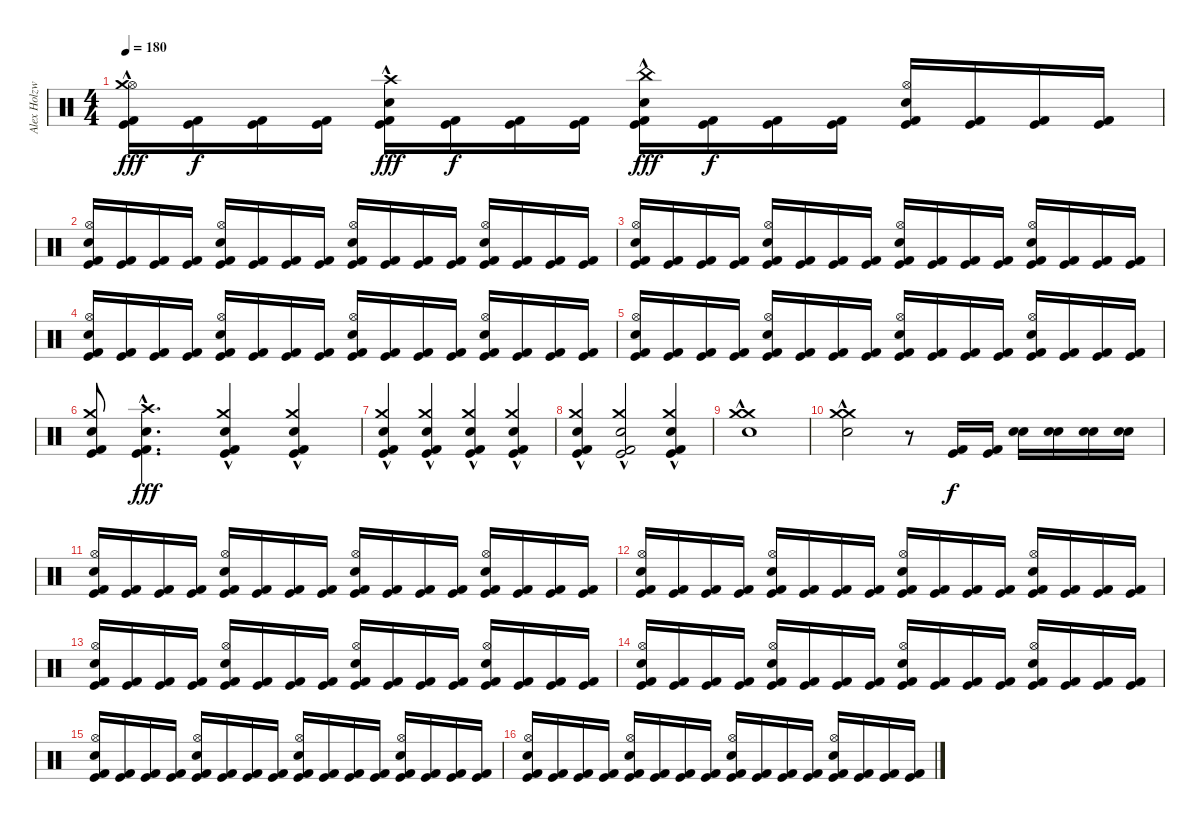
\track ("Alex Holzwarth" "Alex Holzw") {instrument percussion}
\staff {score}
\articulation defaults
\ts (4 4)
\tempo 180
\clef neutral
\ks c
("Kick (hit) 2" "Kick (hit)" "Hi-Hat (open)" "Crash medium (hit)"{hac}).16{dy fff} ("Kick (hit) 2" "Kick (hit)").16{dy f} ("Kick (hit) 2" "Kick (hit)").16 ("Kick (hit) 2" "Kick (hit)").16 ("Kick (hit) 2" "Kick (hit)" "Snare (hit) 2" "Crash high (hit)"{hac}).16{dy fff} ("Kick (hit) 2" "Kick (hit)").16{dy f} ("Kick (hit) 2" "Kick (hit)").16 ("Kick (hit) 2" "Kick (hit)").16 ("Kick (hit) 2" "Kick (hit)" "Snare (hit) 2" "China (hit)"{hac}).16{dy fff} ("Kick (hit) 2" "Kick (hit)").16{dy f} ("Kick (hit) 2" "Kick (hit)").16 ("Kick (hit) 2" "Kick (hit)").16 ("Kick (hit) 2" "Kick (hit)" "Hi-Hat (open)" "Snare (hit) 2").16 ("Kick (hit) 2" "Kick (hit)").16 ("Kick (hit) 2" "Kick (hit)").16 ("Kick (hit) 2" "Kick (hit)").16 |
("Kick (hit) 2" "Kick (hit)" "Snare (hit) 2" "Hi-Hat (open)").16 ("Kick (hit) 2" "Kick (hit)").16 ("Kick (hit) 2" "Kick (hit)").16 ("Kick (hit) 2" "Kick (hit)").16 ("Kick (hit) 2" "Kick (hit)" "Hi-Hat (open)" "Snare (hit) 2").16 ("Kick (hit) 2" "Kick (hit)").16 ("Kick (hit) 2" "Kick (hit)").16 ("Kick (hit) 2" "Kick (hit)").16 ("Kick (hit) 2" "Kick (hit)" "Hi-Hat (open)" "Snare (hit) 2").16 ("Kick (hit) 2" "Kick (hit)").16 ("Kick (hit) 2" "Kick (hit)").16 ("Kick (hit) 2" "Kick (hit)").16 ("Kick (hit) 2" "Kick (hit)" "Hi-Hat (open)" "Snare (hit) 2").16 ("Kick (hit) 2" "Kick (hit)").16 ("Kick (hit) 2" "Kick (hit)").16 ("Kick (hit) 2" "Kick (hit)").16 |
("Kick (hit) 2" "Kick (hit)" "Snare (hit) 2" "Hi-Hat (open)").16 ("Kick (hit) 2" "Kick (hit)").16 ("Kick (hit) 2" "Kick (hit)").16 ("Kick (hit) 2" "Kick (hit)").16 ("Kick (hit) 2" "Kick (hit)" "Hi-Hat (open)" "Snare (hit) 2").16 ("Kick (hit) 2" "Kick (hit)").16 ("Kick (hit) 2" "Kick (hit)").16 ("Kick (hit) 2" "Kick (hit)").16 ("Kick (hit) 2" "Kick (hit)" "Hi-Hat (open)" "Snare (hit) 2").16 ("Kick (hit) 2" "Kick (hit)").16 ("Kick (hit) 2" "Kick (hit)").16 ("Kick (hit) 2" "Kick (hit)").16 ("Kick (hit) 2" "Kick (hit)" "Hi-Hat (open)" "Snare (hit) 2").16 ("Kick (hit) 2" "Kick (hit)").16 ("Kick (hit) 2" "Kick (hit)").16 ("Kick (hit) 2" "Kick (hit)").16 |
("Kick (hit) 2" "Kick (hit)" "Snare (hit) 2" "Hi-Hat (open)").16 ("Kick (hit) 2" "Kick (hit)").16 ("Kick (hit) 2" "Kick (hit)").16 ("Kick (hit) 2" "Kick (hit)").16 ("Kick (hit) 2" "Kick (hit)" "Hi-Hat (open)" "Snare (hit) 2").16 ("Kick (hit) 2" "Kick (hit)").16 ("Kick (hit) 2" "Kick (hit)").16 ("Kick (hit) 2" "Kick (hit)").16 ("Kick (hit) 2" "Kick (hit)" "Hi-Hat (open)" "Snare (hit) 2").16 ("Kick (hit) 2" "Kick (hit)").16 ("Kick (hit) 2" "Kick (hit)").16 ("Kick (hit) 2" "Kick (hit)").16 ("Kick (hit) 2" "Kick (hit)" "Hi-Hat (open)" "Snare (hit) 2").16 ("Kick (hit) 2" "Kick (hit)").16 ("Kick (hit) 2" "Kick (hit)").16 ("Kick (hit) 2" "Kick (hit)").16 |
("Kick (hit) 2" "Kick (hit)" "Snare (hit) 2" "Hi-Hat (open)").16 ("Kick (hit) 2" "Kick (hit)").16 ("Kick (hit) 2" "Kick (hit)").16 ("Kick (hit) 2" "Kick (hit)").16 ("Kick (hit) 2" "Kick (hit)" "Hi-Hat (open)" "Snare (hit) 2").16 ("Kick (hit) 2" "Kick (hit)").16 ("Kick (hit) 2" "Kick (hit)").16 ("Kick (hit) 2" "Kick (hit)").16 ("Kick (hit) 2" "Kick (hit)" "Hi-Hat (open)" "Snare (hit) 2").16 ("Kick (hit) 2" "Kick (hit)").16 ("Kick (hit) 2" "Kick (hit)").16 ("Kick (hit) 2" "Kick (hit)").16 ("Kick (hit) 2" "Kick (hit)" "Hi-Hat (open)" "Snare (hit) 2").16 ("Kick (hit) 2" "Kick (hit)").16 ("Kick (hit) 2" "Kick (hit)").16 ("Kick (hit) 2" "Kick (hit)").16 |
("Kick (hit) 2" "Kick (hit)" "Snare (hit) 2" "Crash medium (hit)").8 ("Kick (hit)" "Kick (hit) 2" "Snare (hit) 2" "Crash high (hit)"{hac}).4{d dy fff} ("Kick (hit) 2" "Kick (hit)" "Snare (hit) 2" "Crash medium (hit)"{hac}).4 ("Kick (hit) 2" "Kick (hit)" "Snare (hit) 2" "Crash medium (hit)"{hac}).4 |
("Kick (hit) 2" "Kick (hit)" "Snare (hit) 2" "Crash medium (hit)"{hac}).4 ("Kick (hit) 2" "Kick (hit)" "Snare (hit) 2" "Crash medium (hit)"{hac}).4 ("Kick (hit) 2" "Kick (hit)" "Snare (hit) 2" "Crash medium (hit)"{hac}).4 ("Kick (hit) 2" "Kick (hit)" "Snare (hit) 2" "Crash medium (hit)"{hac}).4 |
("Kick (hit) 2" "Kick (hit)" "Snare (hit) 2" "Crash medium (hit)"{hac}).4 ("Kick (hit) 2" "Kick (hit)" "Snare (hit) 2" "Crash medium (hit)"{hac}).2 ("Kick (hit) 2" "Kick (hit)" "Snare (hit) 2" "Crash medium (hit)"{hac}).4 |
("Crash medium (hit)"{hac} "Snare (hit) 2" "Crash medium (hit)"{hac}).1{volume 16} |
("Snare (hit) 2" "Crash medium (hit)"{hac} "Crash medium (hit)"{hac}).2 r.8 ("Kick (hit) 2" "Kick (hit)").16{dy f} ("Kick (hit) 2" "Kick (hit)").16 ("Snare (hit) 2" "Electric Snare (hit)").16 ("Snare (hit) 2" "Electric Snare (hit)").16 ("Snare (hit) 2" "Electric Snare (hit)").16 ("Snare (hit) 2" "Electric Snare (hit)").16 |
("Kick (hit) 2" "Kick (hit)" "Snare (hit) 2" "Hi-Hat (open)").16 ("Kick (hit) 2" "Kick (hit)").16 ("Kick (hit) 2" "Kick (hit)").16 ("Kick (hit) 2" "Kick (hit)").16 ("Kick (hit) 2" "Kick (hit)" "Hi-Hat (open)" "Snare (hit) 2").16 ("Kick (hit) 2" "Kick (hit)").16 ("Kick (hit) 2" "Kick (hit)").16 ("Kick (hit) 2" "Kick (hit)").16 ("Kick (hit) 2" "Kick (hit)" "Hi-Hat (open)" "Snare (hit) 2").16 ("Kick (hit) 2" "Kick (hit)").16 ("Kick (hit) 2" "Kick (hit)").16 ("Kick (hit) 2" "Kick (hit)").16 ("Kick (hit) 2" "Kick (hit)" "Hi-Hat (open)" "Snare (hit) 2").16 ("Kick (hit) 2" "Kick (hit)").16 ("Kick (hit) 2" "Kick (hit)").16 ("Kick (hit) 2" "Kick (hit)").16 |
("Kick (hit) 2" "Kick (hit)" "Snare (hit) 2" "Hi-Hat (open)").16 ("Kick (hit) 2" "Kick (hit)").16 ("Kick (hit) 2" "Kick (hit)").16 ("Kick (hit) 2" "Kick (hit)").16 ("Kick (hit) 2" "Kick (hit)" "Hi-Hat (open)" "Snare (hit) 2").16 ("Kick (hit) 2" "Kick (hit)").16 ("Kick (hit) 2" "Kick (hit)").16 ("Kick (hit) 2" "Kick (hit)").16 ("Kick (hit) 2" "Kick (hit)" "Hi-Hat (open)" "Snare (hit) 2").16 ("Kick (hit) 2" "Kick (hit)").16 ("Kick (hit) 2" "Kick (hit)").16 ("Kick (hit) 2" "Kick (hit)").16 ("Kick (hit) 2" "Kick (hit)" "Hi-Hat (open)" "Snare (hit) 2").16 ("Kick (hit) 2" "Kick (hit)").16 ("Kick (hit) 2" "Kick (hit)").16 ("Kick (hit) 2" "Kick (hit)").16 |
("Kick (hit) 2" "Kick (hit)" "Snare (hit) 2" "Hi-Hat (open)").16 ("Kick (hit) 2" "Kick (hit)").16 ("Kick (hit) 2" "Kick (hit)").16 ("Kick (hit) 2" "Kick (hit)").16 ("Kick (hit) 2" "Kick (hit)" "Hi-Hat (open)" "Snare (hit) 2").16 ("Kick (hit) 2" "Kick (hit)").16 ("Kick (hit) 2" "Kick (hit)").16 ("Kick (hit) 2" "Kick (hit)").16 ("Kick (hit) 2" "Kick (hit)" "Hi-Hat (open)" "Snare (hit) 2").16 ("Kick (hit) 2" "Kick (hit)").16 ("Kick (hit) 2" "Kick (hit)").16 ("Kick (hit) 2" "Kick (hit)").16 ("Kick (hit) 2" "Kick (hit)" "Hi-Hat (open)" "Snare (hit) 2").16 ("Kick (hit) 2" "Kick (hit)").16 ("Kick (hit) 2" "Kick (hit)").16 ("Kick (hit) 2" "Kick (hit)").16 |
("Kick (hit) 2" "Kick (hit)" "Snare (hit) 2" "Hi-Hat (open)").16 ("Kick (hit) 2" "Kick (hit)").16 ("Kick (hit) 2" "Kick (hit)").16 ("Kick (hit) 2" "Kick (hit)").16 ("Kick (hit) 2" "Kick (hit)" "Hi-Hat (open)" "Snare (hit) 2").16 ("Kick (hit) 2" "Kick (hit)").16 ("Kick (hit) 2" "Kick (hit)").16 ("Kick (hit) 2" "Kick (hit)").16 ("Kick (hit) 2" "Kick (hit)" "Hi-Hat (open)" "Snare (hit) 2").16 ("Kick (hit) 2" "Kick (hit)").16 ("Kick (hit) 2" "Kick (hit)").16 ("Kick (hit) 2" "Kick (hit)").16 ("Kick (hit) 2" "Kick (hit)" "Hi-Hat (open)" "Snare (hit) 2").16 ("Kick (hit) 2" "Kick (hit)").16 ("Kick (hit) 2" "Kick (hit)").16 ("Kick (hit) 2" "Kick (hit)").16 |
("Kick (hit) 2" "Kick (hit)" "Snare (hit) 2" "Hi-Hat (open)").16 ("Kick (hit) 2" "Kick (hit)").16 ("Kick (hit) 2" "Kick (hit)").16 ("Kick (hit) 2" "Kick (hit)").16 ("Kick (hit) 2" "Kick (hit)" "Hi-Hat (open)" "Snare (hit) 2").16 ("Kick (hit) 2" "Kick (hit)").16 ("Kick (hit) 2" "Kick (hit)").16 ("Kick (hit) 2" "Kick (hit)").16 ("Kick (hit) 2" "Kick (hit)" "Hi-Hat (open)" "Snare (hit) 2").16 ("Kick (hit) 2" "Kick (hit)").16 ("Kick (hit) 2" "Kick (hit)").16 ("Kick (hit) 2" "Kick (hit)").16 ("Kick (hit) 2" "Kick (hit)" "Hi-Hat (open)" "Snare (hit) 2").16 ("Kick (hit) 2" "Kick (hit)").16 ("Kick (hit) 2" "Kick (hit)").16 ("Kick (hit) 2" "Kick (hit)").16 |
("Kick (hit) 2" "Kick (hit)" "Snare (hit) 2" "Hi-Hat (open)").16 ("Kick (hit) 2" "Kick (hit)").16 ("Kick (hit) 2" "Kick (hit)").16 ("Kick (hit) 2" "Kick (hit)").16 ("Kick (hit) 2" "Kick (hit)" "Hi-Hat (open)" "Snare (hit) 2").16 ("Kick (hit) 2" "Kick (hit)").16 ("Kick (hit) 2" "Kick (hit)").16 ("Kick (hit) 2" "Kick (hit)").16 ("Kick (hit) 2" "Kick (hit)" "Hi-Hat (open)" "Snare (hit) 2").16 ("Kick (hit) 2" "Kick (hit)").16 ("Kick (hit) 2" "Kick (hit)").16 ("Kick (hit) 2" "Kick (hit)").16 ("Kick (hit) 2" "Kick (hit)" "Hi-Hat (open)" "Snare (hit) 2").16 ("Kick (hit) 2" "Kick (hit)").16 ("Kick (hit) 2" "Kick (hit)").16 ("Kick (hit) 2" "Kick (hit)").16
